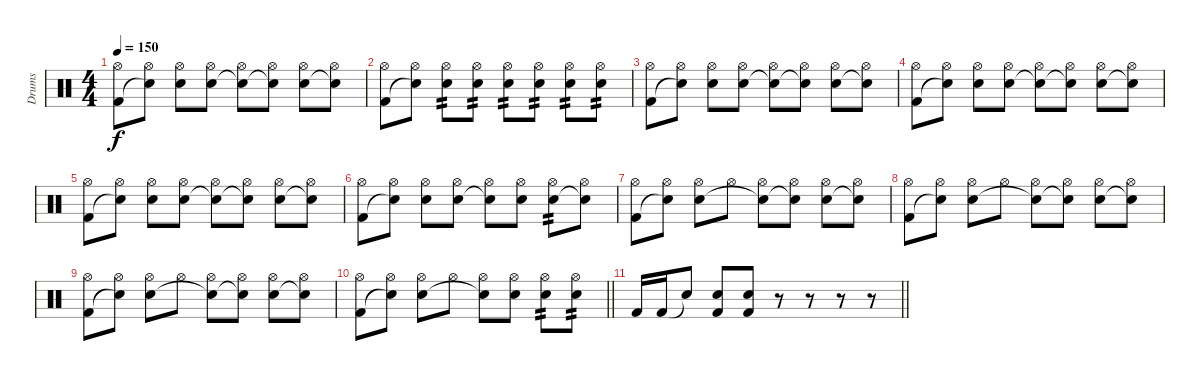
\track ("Drums" "Drums") {instrument percussion}
\staff {score}
\articulation defaults
\ts (4 4)
\tempo 150
\clef neutral
\ks c
("Hi-Hat (open)" "Kick (hit) 2").8{dy f} ("Hi-Hat (open)" "Snare (hit)"{t}).8 ("Hi-Hat (open)" "Electric Snare (hit)").8 ("Hi-Hat (open)" "Electric Snare (hit)").8 ("Hi-Hat (open)" "Snare (hit)"{t}).8 ("Hi-Hat (open)" "Electric Snare (hit)"{t}).8 ("Hi-Hat (open)" "Electric Snare (hit)").8 ("Hi-Hat (open)" "Snare (hit)"{t}).8 |
("Hi-Hat (open)" "Kick (hit) 2").8 ("Hi-Hat (open)" "Snare (hit)"{t}).8 ("Hi-Hat (open)" "Electric Snare (hit)").8{tp 2} ("Hi-Hat (open)" "Electric Snare (hit)").8{tp 2} ("Hi-Hat (open)" "Electric Snare (hit)").8{tp 2} ("Hi-Hat (open)" "Electric Snare (hit)").8{tp 2} ("Hi-Hat (open)" "Electric Snare (hit)").8{tp 2} ("Hi-Hat (open)" "Electric Snare (hit)").8{tp 2} |
("Hi-Hat (open)" "Kick (hit) 2").8 ("Hi-Hat (open)" "Snare (hit)"{t}).8 ("Hi-Hat (open)" "Electric Snare (hit)").8 ("Hi-Hat (open)" "Electric Snare (hit)").8 ("Hi-Hat (open)" "Snare (hit)"{t}).8 ("Hi-Hat (open)" "Electric Snare (hit)"{t}).8 ("Hi-Hat (open)" "Electric Snare (hit)").8 ("Hi-Hat (open)" "Snare (hit)"{t}).8 |
("Hi-Hat (open)" "Kick (hit) 2").8 ("Hi-Hat (open)" "Snare (hit)"{t}).8 ("Hi-Hat (open)" "Electric Snare (hit)").8 ("Hi-Hat (open)" "Electric Snare (hit)").8 ("Hi-Hat (open)" "Snare (hit)"{t}).8 ("Hi-Hat (open)" "Electric Snare (hit)"{t}).8 ("Hi-Hat (open)" "Electric Snare (hit)").8 ("Hi-Hat (open)" "Snare (hit)"{t}).8 |
("Hi-Hat (open)" "Kick (hit) 2").8 ("Hi-Hat (open)" "Snare (hit)"{t}).8 ("Hi-Hat (open)" "Electric Snare (hit)").8 ("Hi-Hat (open)" "Electric Snare (hit)").8 ("Hi-Hat (open)" "Snare (hit)"{t}).8 ("Hi-Hat (open)" "Electric Snare (hit)"{t}).8 ("Hi-Hat (open)" "Electric Snare (hit)").8 ("Hi-Hat (open)" "Snare (hit)"{t}).8 |
("Hi-Hat (open)" "Kick (hit) 2").8 ("Hi-Hat (open)" "Snare (hit)"{t}).8 ("Hi-Hat (open)" "Electric Snare (hit)").8 ("Hi-Hat (open)" "Electric Snare (hit)").8 ("Hi-Hat (open)" "Snare (hit)"{t}).8 ("Hi-Hat (open)" "Electric Snare (hit)").8 ("Hi-Hat (open)" "Electric Snare (hit)").8{tp 2} ("Hi-Hat (open)" "Snare (hit)"{t}).8 |
("Hi-Hat (open)" "Kick (hit) 2").8 ("Hi-Hat (open)" "Snare (hit)"{t}).8 ("Hi-Hat (open)" "Electric Snare (hit)").8 "Hi-Hat (open)".8 ("Hi-Hat (open)" "Snare (hit)"{t}).8 ("Hi-Hat (open)" "Electric Snare (hit)"{t}).8 ("Hi-Hat (open)" "Electric Snare (hit)").8 ("Hi-Hat (open)" "Snare (hit)"{t}).8 |
("Hi-Hat (open)" "Kick (hit) 2").8 ("Hi-Hat (open)" "Snare (hit)"{t}).8 ("Hi-Hat (open)" "Electric Snare (hit)").8 "Hi-Hat (open)".8 ("Hi-Hat (open)" "Snare (hit)"{t}).8 ("Hi-Hat (open)" "Electric Snare (hit)"{t}).8 ("Hi-Hat (open)" "Electric Snare (hit)").8 ("Hi-Hat (open)" "Snare (hit)"{t}).8 |
("Hi-Hat (open)" "Kick (hit) 2").8 ("Hi-Hat (open)" "Snare (hit)"{t}).8 ("Hi-Hat (open)" "Electric Snare (hit)").8 "Hi-Hat (open)".8 ("Hi-Hat (open)" "Snare (hit)"{t}).8 ("Hi-Hat (open)" "Electric Snare (hit)"{t}).8 ("Hi-Hat (open)" "Electric Snare (hit)").8 ("Hi-Hat (open)" "Snare (hit)"{t}).8 |
\barLineRight lightlight
("Hi-Hat (open)" "Kick (hit) 2").8 ("Hi-Hat (open)" "Snare (hit)"{t}).8 ("Hi-Hat (open)" "Electric Snare (hit)").8 "Hi-Hat (open)".8 ("Hi-Hat (open)" "Snare (hit)"{t}).8 ("Hi-Hat (open)" "Electric Snare (hit)").8 ("Hi-Hat (open)" "Electric Snare (hit)").8{tp 2} ("Hi-Hat (open)" "Electric Snare (hit)").8{tp 2} |
\barLineRight lightlight "Kick (hit) 2".16 "Kick (hit) 2".16 "Snare (hit)"{t}.8
("Electric Snare (hit)" "Kick (hit) 2").8 ("Electric Snare (hit)" "Kick (hit) 2").8 r.8 r.8 r.8 r.8
